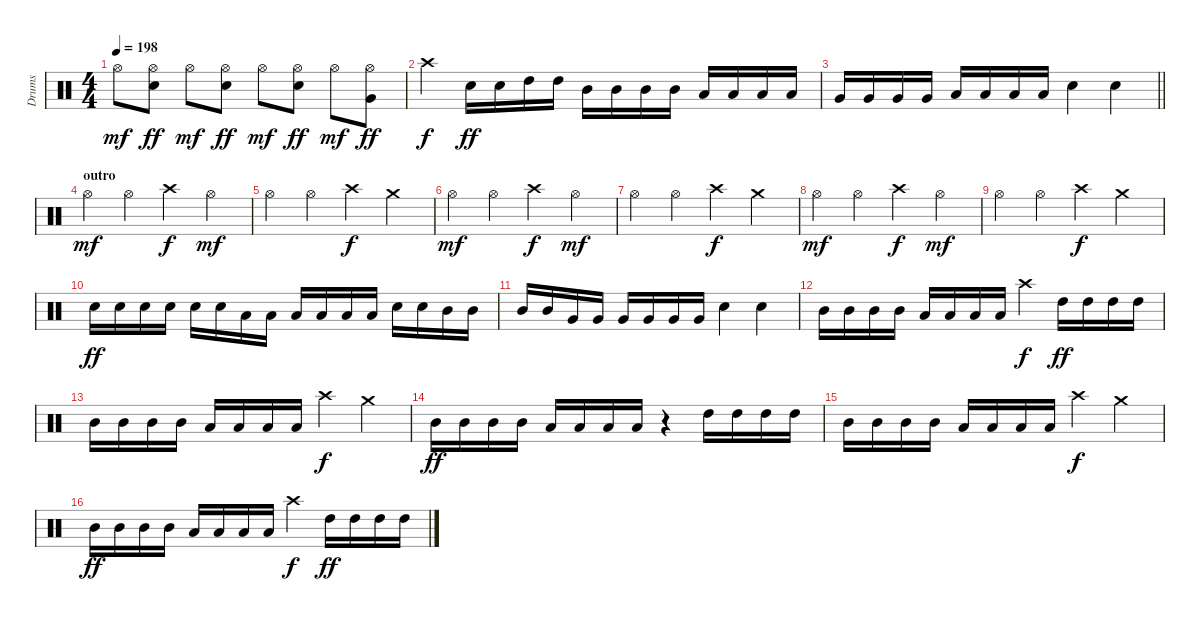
\track ("Drums" "Drums") {instrument percussion}
\staff {score}
\articulation defaults
\ts (4 4)
\tempo 198
\clef neutral
\ks c "Hi-Hat (open)".8{dy mf}
("Hi-Hat (open)" "Snare (hit) 2").8{dy ff} "Hi-Hat (open)".8{dy mf} ("Hi-Hat (open)" "Snare (hit) 2").8{dy ff} "Hi-Hat (open)".8{dy mf} ("Hi-Hat (open)" "Snare (hit) 2").8{dy ff} "Hi-Hat (open)".8{dy mf} ("Hi-Hat (open)" "Very Low Tom (hit)").8{dy ff} |
"Crash high (hit)".4{dy f} "Snare (hit) 2".16{dy ff} "Snare (hit) 2".16 "High Tom (hit)".16 "High Tom (hit)".16 "Mid Tom (hit)".16 "Mid Tom (hit)".16 "Mid Tom (hit)".16 "Mid Tom (hit)".16 "Low Tom (hit)".16 "Low Tom (hit)".16 "Low Tom (hit)".16 "Low Tom (hit)".16 |
\barLineRight lightlight "Very Low Tom (hit)".16 "Very Low Tom (hit)".16 "Very Low Tom (hit)".16 "Very Low Tom (hit)".16 "Low Floor Tom (hit)".16 "Low Floor Tom (hit)".16 "Low Floor Tom (hit)".16 "Low Floor Tom (hit)".16 "Snare (hit) 2".4 "Snare (hit) 2".4
|
\section ("" "outro")
"Hi-Hat (open)".4{dy mf} "Hi-Hat (open)".4 "Crash high (hit)".4{dy f} "Hi-Hat (open)".4{dy mf} |
"Hi-Hat (open)".4 "Hi-Hat (open)".4 "Crash high (hit)".4{dy f} "Crash medium (hit)".4 |
"Hi-Hat (open)".4{dy mf} "Hi-Hat (open)".4 "Crash high (hit)".4{dy f} "Hi-Hat (open)".4{dy mf} |
"Hi-Hat (open)".4 "Hi-Hat (open)".4 "Crash high (hit)".4{dy f} "Crash medium (hit)".4 |
"Hi-Hat (open)".4{dy mf} "Hi-Hat (open)".4 "Crash high (hit)".4{dy f} "Hi-Hat (open)".4{dy mf} |
"Hi-Hat (open)".4 "Hi-Hat (open)".4 "Crash high (hit)".4{dy f} "Crash medium (hit)".4 |
"Snare (hit) 2".16{dy ff} "Snare (hit) 2".16 "Snare (hit) 2".16 "Snare (hit) 2".16 "Snare (hit) 2".16 "Snare (hit) 2".16 "Low Tom (hit)".16 "Low Tom (hit)".16 "Low Tom (hit)".16 "Low Tom (hit)".16 "Low Tom (hit)".16 "Low Tom (hit)".16 "Snare (hit) 2".16 "Snare (hit) 2".16 "Mid Tom (hit)".16 "Mid Tom (hit)".16 |
"Mid Tom (hit)".16 "Mid Tom (hit)".16 "Very Low Tom (hit)".16 "Very Low Tom (hit)".16 "Very Low Tom (hit)".16 "Very Low Tom (hit)".16 "Very Low Tom (hit)".16 "Very Low Tom (hit)".16 "Snare (hit) 2".4 "Snare (hit) 2".4 |
"Mid Tom (hit)".16 "Mid Tom (hit)".16 "Mid Tom (hit)".16 "Mid Tom (hit)".16 "Low Tom (hit)".16 "Low Tom (hit)".16 "Low Tom (hit)".16 "Low Tom (hit)".16 "Crash high (hit)".4{dy f} "High Tom (hit)".16{dy ff} "High Tom (hit)".16 "High Tom (hit)".16 "High Tom (hit)".16 |
"Mid Tom (hit)".16 "Mid Tom (hit)".16 "Mid Tom (hit)".16 "Mid Tom (hit)".16 "Low Tom (hit)".16 "Low Tom (hit)".16 "Low Tom (hit)".16 "Low Tom (hit)".16 "Crash high (hit)".4{dy f} "Crash medium (hit)".4 |
"Mid Tom (hit)".16{dy ff} "Mid Tom (hit)".16 "Mid Tom (hit)".16 "Mid Tom (hit)".16 "Low Tom (hit)".16 "Low Tom (hit)".16 "Low Tom (hit)".16 "Low Tom (hit)".16 r.4 "High Tom (hit)".16 "High Tom (hit)".16 "High Tom (hit)".16 "High Tom (hit)".16 |
"Mid Tom (hit)".16 "Mid Tom (hit)".16 "Mid Tom (hit)".16 "Mid Tom (hit)".16 "Low Tom (hit)".16 "Low Tom (hit)".16 "Low Tom (hit)".16 "Low Tom (hit)".16 "Crash high (hit)".4{dy f} "Crash medium (hit)".4 |
"Mid Tom (hit)".16{dy ff} "Mid Tom (hit)".16 "Mid Tom (hit)".16 "Mid Tom (hit)".16 "Low Tom (hit)".16 "Low Tom (hit)".16 "Low Tom (hit)".16 "Low Tom (hit)".16 "Crash high (hit)".4{dy f} "High Tom (hit)".16{dy ff} "High Tom (hit)".16 "High Tom (hit)".16 "High Tom (hit)".16
